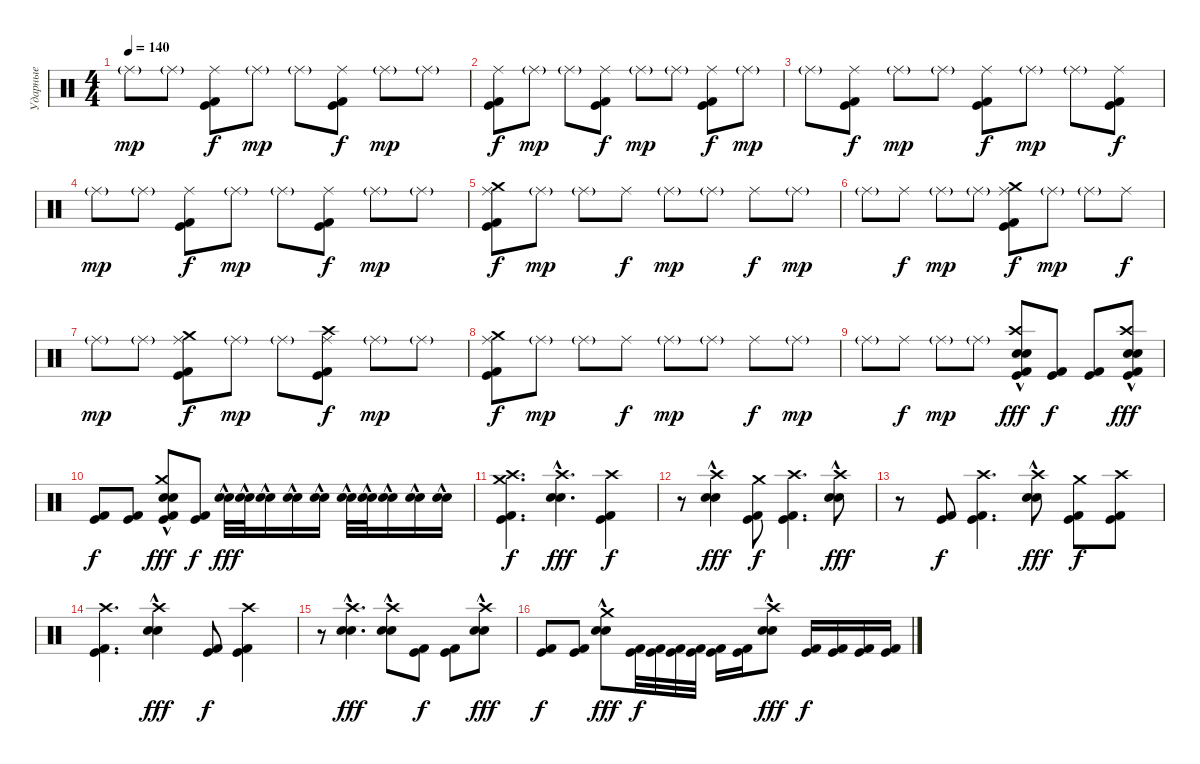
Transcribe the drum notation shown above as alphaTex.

\track ("Ударные" "Ударные") {instrument percussion}
\staff {score}
\articulation defaults
\ts (4 4)
\tempo 140
\clef neutral
\ks c "Ride (middle)"{g}.8{dy mp} "Ride (middle)"{g}.8
("Ride (middle)" "Kick (hit)" "Kick (hit) 2").8{dy f} "Ride (middle)"{g}.8{dy mp} "Ride (middle)"{g}.8 ("Ride (middle)" "Kick (hit)" "Kick (hit) 2").8{dy f} "Ride (middle)"{g}.8{dy mp} "Ride (middle)"{g}.8 |
("Ride (middle)" "Kick (hit)" "Kick (hit) 2").8{dy f} "Ride (middle)"{g}.8{dy mp} "Ride (middle)"{g}.8 ("Ride (middle)" "Kick (hit)" "Kick (hit) 2").8{dy f} "Ride (middle)"{g}.8{dy mp} "Ride (middle)"{g}.8 ("Ride (middle)" "Kick (hit)" "Kick (hit) 2").8{dy f} "Ride (middle)"{g}.8{dy mp} |
"Ride (middle)"{g}.8 ("Ride (middle)" "Kick (hit)" "Kick (hit) 2").8{dy f} "Ride (middle)"{g}.8{dy mp} "Ride (middle)"{g}.8 ("Ride (middle)" "Kick (hit)" "Kick (hit) 2").8{dy f} "Ride (middle)"{g}.8{dy mp} "Ride (middle)"{g}.8 ("Ride (middle)" "Kick (hit)" "Kick (hit) 2").8{dy f} |
"Ride (middle)"{g}.8{dy mp} "Ride (middle)"{g}.8 ("Ride (middle)" "Kick (hit)" "Kick (hit) 2").8{dy f} "Ride (middle)"{g}.8{dy mp} "Ride (middle)"{g}.8 ("Ride (middle)" "Kick (hit)" "Kick (hit) 2").8{dy f} "Ride (middle)"{g}.8{dy mp} "Ride (middle)"{g}.8 |
("Ride (middle)" "Kick (hit)" "Kick (hit) 2" "Crash medium (hit)").8{dy f} "Ride (middle)"{g}.8{dy mp} "Ride (middle)"{g}.8 "Ride (middle)".8{dy f} "Ride (middle)"{g}.8{dy mp} "Ride (middle)"{g}.8 "Ride (middle)".8{dy f} "Ride (middle)"{g}.8{dy mp} |
"Ride (middle)"{g}.8 "Ride (middle)".8{dy f} "Ride (middle)"{g}.8{dy mp} "Ride (middle)"{g}.8 ("Ride (middle)" "Kick (hit)" "Kick (hit) 2" "Crash medium (hit)").8{dy f} "Ride (middle)"{g}.8{dy mp} "Ride (middle)"{g}.8 "Ride (middle)".8{dy f} |
"Ride (middle)"{g}.8{dy mp} "Ride (middle)"{g}.8 ("Ride (middle)" "Kick (hit)" "Kick (hit) 2" "Crash medium (hit)").8{dy f} "Ride (middle)"{g}.8{dy mp} "Ride (middle)"{g}.8 ("Ride (middle)" "Kick (hit)" "Kick (hit) 2" "Crash high (hit)").8{dy f} "Ride (middle)"{g}.8{dy mp} "Ride (middle)"{g}.8 |
("Ride (middle)" "Kick (hit)" "Kick (hit) 2" "Crash medium (hit)").8{dy f} "Ride (middle)"{g}.8{dy mp} "Ride (middle)"{g}.8 "Ride (middle)".8{dy f} "Ride (middle)"{g}.8{dy mp} "Ride (middle)"{g}.8 "Ride (middle)".8{dy f} "Ride (middle)"{g}.8{dy mp} |
"Ride (middle)"{g}.8 "Ride (middle)".8{dy f} "Ride (middle)"{g}.8{dy mp} "Ride (middle)"{g}.8 ("Crash high (hit)" "Kick (hit)" "Kick (hit) 2" "Snare (hit) 2"{hac} "Electric Snare (hit)"{hac}).8{dy fff} ("Kick (hit)" "Kick (hit) 2").8{dy f} ("Kick (hit)" "Kick (hit) 2").8 ("Crash high (hit)" "Kick (hit)" "Kick (hit) 2" "Snare (hit) 2"{hac} "Electric Snare (hit)"{hac}).8{dy fff} |
("Kick (hit)" "Kick (hit) 2").8{dy f} ("Kick (hit)" "Kick (hit) 2").8 ("Crash medium (hit)" "Kick (hit)" "Kick (hit) 2" "Snare (hit) 2"{hac} "Electric Snare (hit)"{hac}).8{dy fff} ("Kick (hit)" "Kick (hit) 2").8{dy f} ("Snare (hit) 2"{hac} "Electric Snare (hit)"{hac}).32{dy fff} ("Snare (hit) 2"{hac} "Electric Snare (hit)"{hac}).32 ("Snare (hit) 2"{hac} "Electric Snare (hit)"{hac}).16 ("Snare (hit) 2"{hac} "Electric Snare (hit)"{hac}).16 ("Snare (hit) 2"{hac} "Electric Snare (hit)"{hac}).16 ("Snare (hit) 2"{hac} "Electric Snare (hit)"{hac}).32 ("Snare (hit) 2"{hac} "Electric Snare (hit)"{hac}).32 ("Snare (hit) 2"{hac} "Electric Snare (hit)"{hac}).16 ("Snare (hit) 2"{hac} "Electric Snare (hit)"{hac}).16 ("Snare (hit) 2"{hac} "Electric Snare (hit)"{hac}).16 |
("Crash high (hit)" "Kick (hit)" "Kick (hit) 2" "Crash medium (hit)").4{d dy f} ("Crash high (hit)" "Snare (hit) 2"{hac} "Electric Snare (hit)"{hac}).4{d dy fff} ("Crash high (hit)" "Kick (hit)" "Kick (hit) 2").4{dy f} |
r.8 ("Crash high (hit)" "Snare (hit) 2"{hac} "Electric Snare (hit)"{hac}).4{dy fff} ("Crash medium (hit)" "Kick (hit)" "Kick (hit) 2").8{dy f} ("Crash high (hit)" "Kick (hit)" "Kick (hit) 2").4{d} ("Crash high (hit)" "Snare (hit) 2"{hac} "Electric Snare (hit)"{hac}).8{dy fff} |
r.8 ("Kick (hit)" "Kick (hit) 2").8{dy f} ("Crash high (hit)" "Kick (hit)" "Kick (hit) 2").4{d} ("Crash high (hit)" "Snare (hit) 2"{hac} "Electric Snare (hit)"{hac}).8{dy fff} ("Crash medium (hit)" "Kick (hit)" "Kick (hit) 2").8{dy f} ("Crash high (hit)" "Kick (hit)" "Kick (hit) 2").8 |
("Crash high (hit)" "Kick (hit)" "Kick (hit) 2").4{d} ("Crash high (hit)" "Snare (hit) 2"{hac} "Electric Snare (hit)"{hac}).4{dy fff} ("Kick (hit)" "Kick (hit) 2").8{dy f} ("Crash high (hit)" "Kick (hit)" "Kick (hit) 2").4 |
r.8 ("Crash high (hit)" "Snare (hit) 2"{hac} "Electric Snare (hit)"{hac}).4{d dy fff} ("Crash high (hit)" "Snare (hit) 2"{hac} "Electric Snare (hit)"{hac}).8 ("Kick (hit)" "Kick (hit) 2").8{dy f} ("Kick (hit)" "Kick (hit) 2").8 ("Crash high (hit)" "Snare (hit) 2"{hac} "Electric Snare (hit)"{hac}).8{dy fff} |
("Kick (hit)" "Kick (hit) 2").8{dy f} ("Kick (hit)" "Kick (hit) 2").8 ("Crash medium (hit)" "Snare (hit) 2"{hac} "Electric Snare (hit)"{hac}).8{dy fff} ("Kick (hit)" "Kick (hit) 2").32{dy f} ("Kick (hit)" "Kick (hit) 2").32 ("Kick (hit)" "Kick (hit) 2").32 ("Kick (hit)" "Kick (hit) 2").32 ("Kick (hit)" "Kick (hit) 2").16 ("Kick (hit)" "Kick (hit) 2").16 ("Crash high (hit)" "Snare (hit) 2"{hac} "Electric Snare (hit)"{hac}).8{dy fff} ("Kick (hit)" "Kick (hit) 2").16{dy f} ("Kick (hit)" "Kick (hit) 2").16 ("Kick (hit)" "Kick (hit) 2").16 ("Kick (hit)" "Kick (hit) 2").16
